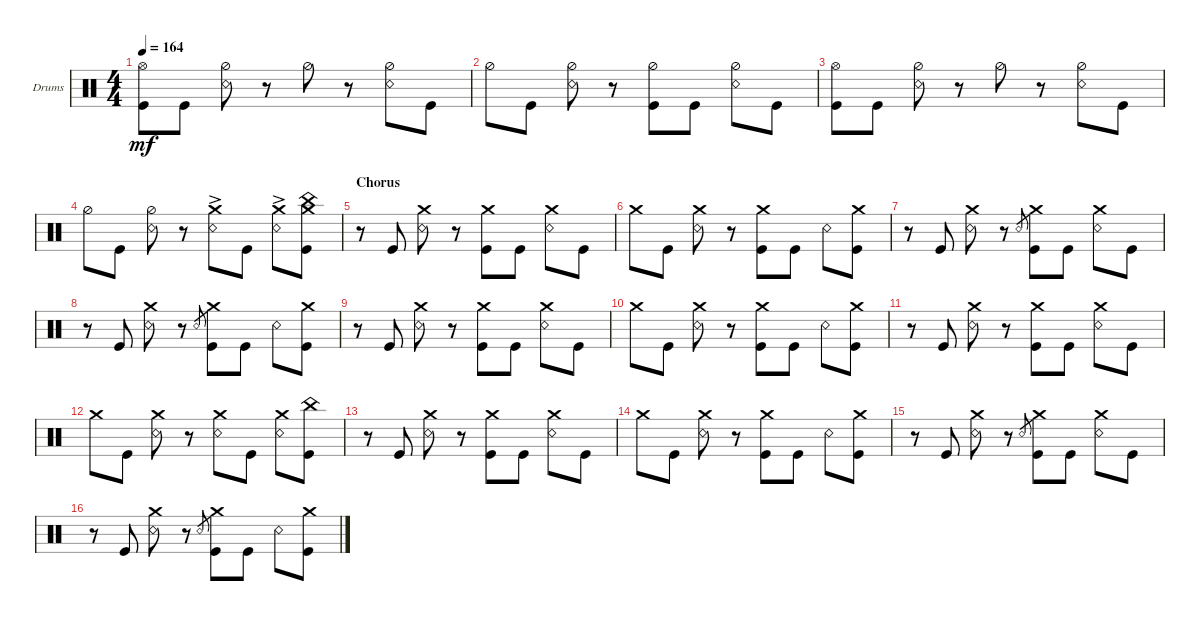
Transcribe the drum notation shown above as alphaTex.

\defaultSystemsLayout 4
\bracketExtendMode groupsimilarinstruments
\firstSystemTrackNameOrientation horizontal
\otherSystemsTrackNameOrientation horizontal
\track ("Drums" "Drums") {instrument percussion}
\staff {score}
\articulation defaults
\ts (4 4)
\tempo 164
\clef neutral
\scale
0.333333
\ks c
("Kick (hit)" "Hi-Hat (open)").8{dy mf} "Kick (hit)".8 ("Snare (rim shot)" "Hi-Hat (half)").8 r.8 "Hi-Hat (half)".8 r.8 ("Snare (rim shot)" "Hi-Hat (half)").8 "Kick (hit)".8 |
\scale
0.333333 "Hi-Hat (half)".8 "Kick (hit)".8 ("Snare (rim shot)" "Hi-Hat (half)").8 r.8 ("Kick (hit)" "Hi-Hat (half)").8 "Kick (hit)".8 ("Snare (rim shot)" "Hi-Hat (half)").8 "Kick (hit)".8 |
\scale
0.333333 ("Kick (hit)" "Hi-Hat (open)").8 "Kick (hit)".8 ("Snare (rim shot)" "Hi-Hat (half)").8 r.8 "Hi-Hat (half)".8 r.8 ("Snare (rim shot)" "Hi-Hat (half)").8 "Kick (hit)".8 |
\scale
0.333333 "Hi-Hat (half)".8 "Kick (hit)".8 ("Snare (rim shot)" "Hi-Hat (half)").8 r.8 ("Snare (rim shot)"{ac} "Crash medium (hit)").8 "Kick (hit)".8 ("Snare (rim shot)"{ac} "Crash medium (hit)").8 ("Kick (hit)" "China (hit)" "Crash medium (hit)").8 |
\section ("" "Chorus")
\scale
0.333333 r.8 "Kick (hit)".8 ("Snare (rim shot)" "Crash medium (hit)").8 r.8 ("Kick (hit)" "Crash medium (hit)").8 "Kick (hit)".8 ("Snare (rim shot)" "Crash medium (hit)").8 "Kick (hit)".8 |
\scale
0.333333 "Crash medium (hit)".8 "Kick (hit)".8 ("Snare (rim shot)" "Crash medium (hit)").8 r.8 ("Kick (hit)" "Crash medium (hit)").8 "Kick (hit)".8 "Snare (rim shot)".8 ("Crash medium (hit)" "Kick (hit)").8 |
\scale
0.333333 r.8 "Kick (hit)".8 ("Snare (rim shot)" "Crash medium (hit)").8 r.8 "Snare (rim shot)".8{gr} ("Kick (hit)" "Crash medium (hit)").8 "Kick (hit)".8 ("Snare (rim shot)" "Crash medium (hit)").8 "Kick (hit)".8 |
\scale
0.333333 r.8 "Kick (hit)".8 ("Snare (rim shot)" "Crash medium (hit)").8 r.8 "Snare (rim shot)".8{gr} ("Kick (hit)" "Crash medium (hit)").8 "Kick (hit)".8 "Snare (rim shot)".8 ("Kick (hit)" "Crash medium (hit)").8 |
\scale
0.333333 r.8 "Kick (hit)".8 ("Snare (rim shot)" "Crash medium (hit)").8 r.8 ("Kick (hit)" "Crash medium (hit)").8 "Kick (hit)".8 ("Snare (rim shot)" "Crash medium (hit)").8 "Kick (hit)".8 |
\scale
0.333333 "Crash medium (hit)".8 "Kick (hit)".8 ("Snare (rim shot)" "Crash medium (hit)").8 r.8 ("Kick (hit)" "Crash medium (hit)").8 "Kick (hit)".8 "Snare (rim shot)".8 ("Crash medium (hit)" "Kick (hit)").8 |
\scale
0.333333 r.8 "Kick (hit)".8 ("Snare (rim shot)" "Crash medium (hit)").8 r.8 ("Kick (hit)" "Crash medium (hit)").8 "Kick (hit)".8 ("Snare (rim shot)" "Crash medium (hit)").8 "Kick (hit)".8 |
\scale
0.333333 "Crash medium (hit)".8 "Kick (hit)".8 ("Snare (rim shot)" "Crash medium (hit)").8 r.8 ("Snare (rim shot)" "Crash medium (hit)").8 "Kick (hit)".8 ("Snare (rim shot)" "Crash medium (hit)").8 ("Kick (hit)" "China (hit)").8 |
\scale
0.333333 r.8 "Kick (hit)".8 ("Snare (rim shot)" "Crash medium (hit)").8 r.8 ("Kick (hit)" "Crash medium (hit)").8 "Kick (hit)".8 ("Snare (rim shot)" "Crash medium (hit)").8 "Kick (hit)".8 |
\scale
0.333333 "Crash medium (hit)".8 "Kick (hit)".8 ("Snare (rim shot)" "Crash medium (hit)").8 r.8 ("Kick (hit)" "Crash medium (hit)").8 "Kick (hit)".8 "Snare (rim shot)".8 ("Crash medium (hit)" "Kick (hit)").8 |
\scale
0.333333 r.8 "Kick (hit)".8 ("Snare (rim shot)" "Crash medium (hit)").8 r.8 "Snare (rim shot)".8{gr} ("Kick (hit)" "Crash medium (hit)").8 "Kick (hit)".8 ("Snare (rim shot)" "Crash medium (hit)").8 "Kick (hit)".8 |
\scale
0.333333 r.8 "Kick (hit)".8 ("Snare (rim shot)" "Crash medium (hit)").8 r.8 "Snare (rim shot)".8{gr} ("Kick (hit)" "Crash medium (hit)").8 "Kick (hit)".8 "Snare (rim shot)".8 ("Kick (hit)" "Crash medium (hit)").8
